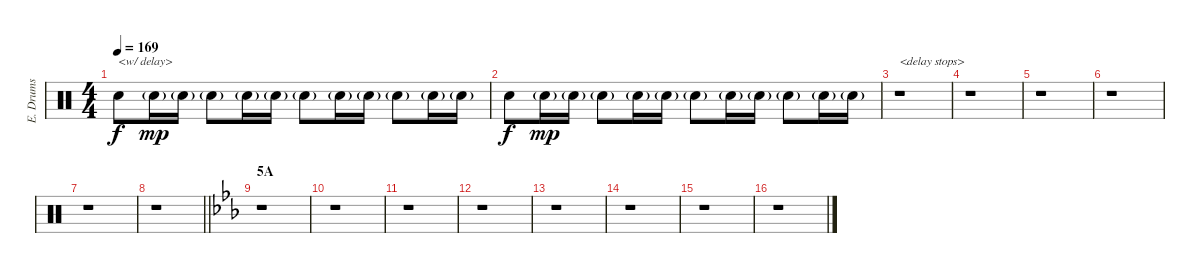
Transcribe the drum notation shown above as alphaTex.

\track ("E. Drums" "E. Drums") {instrument percussion}
\staff {score}
\articulation defaults
\ts (4 4)
\tempo 169
\clef neutral
\ks c "Electric Snare (hit)".8{txt "<w/ delay>" dy f} "Electric Snare (hit)"{g}.16{dy mp} "Electric Snare (hit)"{g}.16 "Electric Snare (hit)"{g}.8 "Electric Snare (hit)"{g}.16 "Electric Snare (hit)"{g}.16 "Electric Snare (hit)"{g}.8 "Electric Snare (hit)"{g}.16 "Electric Snare (hit)"{g}.16 "Electric Snare (hit)"{g}.8 "Electric Snare (hit)"{g}.16 "Electric Snare (hit)"{g}.16
|
"Electric Snare (hit)".8{dy f} "Electric Snare (hit)"{g}.16{dy mp} "Electric Snare (hit)"{g}.16 "Electric Snare (hit)"{g}.8 "Electric Snare (hit)"{g}.16 "Electric Snare (hit)"{g}.16 "Electric Snare (hit)"{g}.8 "Electric Snare (hit)"{g}.16 "Electric Snare (hit)"{g}.16 "Electric Snare (hit)"{g}.8 "Electric Snare (hit)"{g}.16 "Electric Snare (hit)"{g}.16 |
r.1{txt "<delay stops>"} |
r.1 |
r.1 |
r.1 |
r.1 |
\barLineRight lightlight
r.1 |
\section ("" "5A")
\ks eb
r.1 |
r.1 |
r.1 |
r.1 |
r.1 |
r.1 |
r.1 |
r.1
